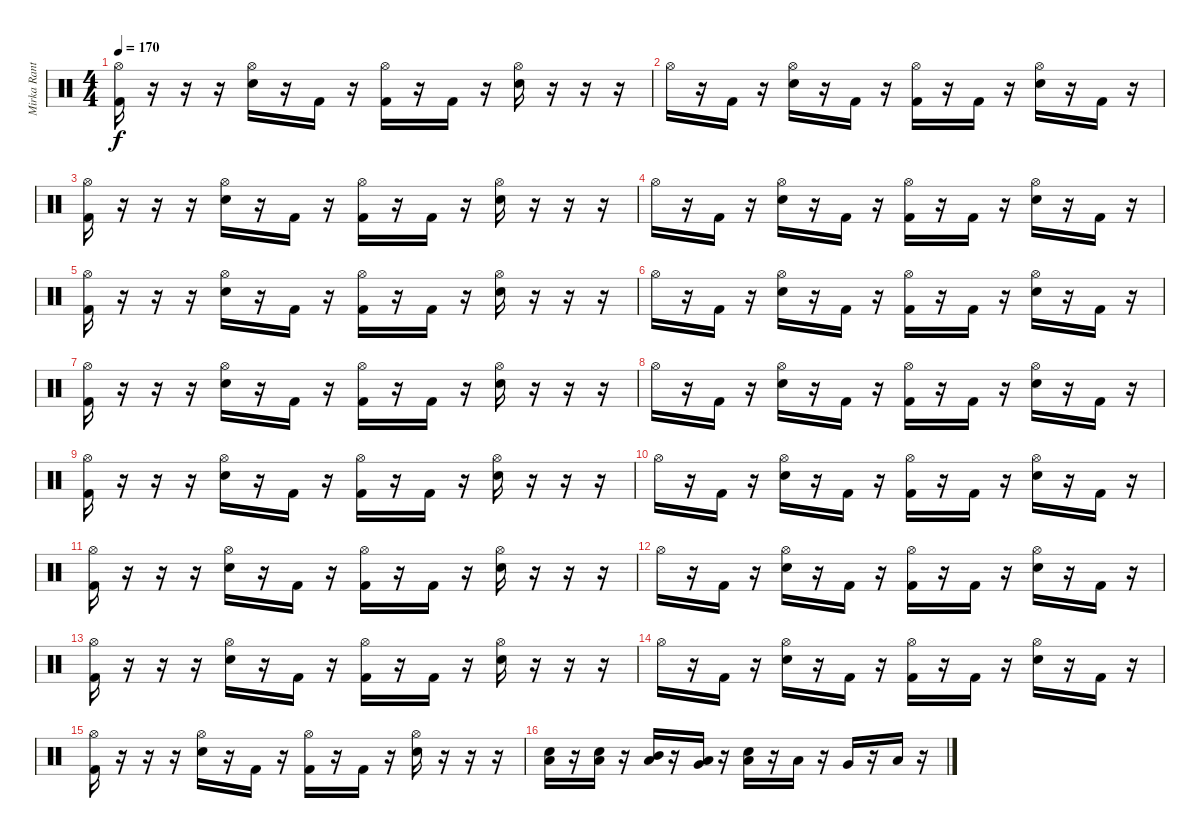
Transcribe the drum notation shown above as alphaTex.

\track ("Mirka Rantanen" "Mirka Rant") {instrument percussion}
\staff {score}
\articulation defaults
\ts (4 4)
\tempo 170
\clef neutral
\ks c
("Hi-Hat (open)" "Kick (hit) 2").16{dy f} r.16 r.16 r.16 ("Hi-Hat (open)" "Snare (hit) 2").16 r.16 "Kick (hit) 2".16 r.16 ("Hi-Hat (open)" "Kick (hit) 2").16 r.16 "Kick (hit) 2".16 r.16 ("Hi-Hat (open)" "Snare (hit) 2").16 r.16 r.16 r.16 |
"Hi-Hat (open)".16 r.16 "Kick (hit) 2".16 r.16 ("Hi-Hat (open)" "Snare (hit) 2").16 r.16 "Kick (hit) 2".16 r.16 ("Hi-Hat (open)" "Kick (hit) 2").16 r.16 "Kick (hit) 2".16 r.16 ("Hi-Hat (open)" "Snare (hit) 2").16 r.16 "Kick (hit) 2".16 r.16 |
("Hi-Hat (open)" "Kick (hit) 2").16 r.16 r.16 r.16 ("Hi-Hat (open)" "Snare (hit) 2").16 r.16 "Kick (hit) 2".16 r.16 ("Hi-Hat (open)" "Kick (hit) 2").16 r.16 "Kick (hit) 2".16 r.16 ("Hi-Hat (open)" "Snare (hit) 2").16 r.16 r.16 r.16 |
"Hi-Hat (open)".16 r.16 "Kick (hit) 2".16 r.16 ("Hi-Hat (open)" "Snare (hit) 2").16 r.16 "Kick (hit) 2".16 r.16 ("Hi-Hat (open)" "Kick (hit) 2").16 r.16 "Kick (hit) 2".16 r.16 ("Hi-Hat (open)" "Snare (hit) 2").16 r.16 "Kick (hit) 2".16 r.16 |
("Hi-Hat (open)" "Kick (hit) 2").16 r.16 r.16 r.16 ("Hi-Hat (open)" "Snare (hit) 2").16 r.16 "Kick (hit) 2".16 r.16 ("Hi-Hat (open)" "Kick (hit) 2").16 r.16 "Kick (hit) 2".16 r.16 ("Hi-Hat (open)" "Snare (hit) 2").16 r.16 r.16 r.16 |
"Hi-Hat (open)".16 r.16 "Kick (hit) 2".16 r.16 ("Hi-Hat (open)" "Snare (hit) 2").16 r.16 "Kick (hit) 2".16 r.16 ("Hi-Hat (open)" "Kick (hit) 2").16 r.16 "Kick (hit) 2".16 r.16 ("Hi-Hat (open)" "Snare (hit) 2").16 r.16 "Kick (hit) 2".16 r.16 |
("Hi-Hat (open)" "Kick (hit) 2").16 r.16 r.16 r.16 ("Hi-Hat (open)" "Snare (hit) 2").16 r.16 "Kick (hit) 2".16 r.16 ("Hi-Hat (open)" "Kick (hit) 2").16 r.16 "Kick (hit) 2".16 r.16 ("Hi-Hat (open)" "Snare (hit) 2").16 r.16 r.16 r.16 |
"Hi-Hat (open)".16 r.16 "Kick (hit) 2".16 r.16 ("Hi-Hat (open)" "Snare (hit) 2").16 r.16 "Kick (hit) 2".16 r.16 ("Hi-Hat (open)" "Kick (hit) 2").16 r.16 "Kick (hit) 2".16 r.16 ("Hi-Hat (open)" "Snare (hit) 2").16 r.16 "Kick (hit) 2".16 r.16 |
("Hi-Hat (open)" "Kick (hit) 2").16 r.16 r.16 r.16 ("Hi-Hat (open)" "Snare (hit) 2").16 r.16 "Kick (hit) 2".16 r.16 ("Hi-Hat (open)" "Kick (hit) 2").16 r.16 "Kick (hit) 2".16 r.16 ("Hi-Hat (open)" "Snare (hit) 2").16 r.16 r.16 r.16 |
"Hi-Hat (open)".16 r.16 "Kick (hit) 2".16 r.16 ("Hi-Hat (open)" "Snare (hit) 2").16 r.16 "Kick (hit) 2".16 r.16 ("Hi-Hat (open)" "Kick (hit) 2").16 r.16 "Kick (hit) 2".16 r.16 ("Hi-Hat (open)" "Snare (hit) 2").16 r.16 "Kick (hit) 2".16 r.16 |
("Hi-Hat (open)" "Kick (hit) 2").16 r.16 r.16 r.16 ("Hi-Hat (open)" "Snare (hit) 2").16 r.16 "Kick (hit) 2".16 r.16 ("Hi-Hat (open)" "Kick (hit) 2").16 r.16 "Kick (hit) 2".16 r.16 ("Hi-Hat (open)" "Snare (hit) 2").16 r.16 r.16 r.16 |
"Hi-Hat (open)".16 r.16 "Kick (hit) 2".16 r.16 ("Hi-Hat (open)" "Snare (hit) 2").16 r.16 "Kick (hit) 2".16 r.16 ("Hi-Hat (open)" "Kick (hit) 2").16 r.16 "Kick (hit) 2".16 r.16 ("Hi-Hat (open)" "Snare (hit) 2").16 r.16 "Kick (hit) 2".16 r.16 |
("Hi-Hat (open)" "Kick (hit) 2").16 r.16 r.16 r.16 ("Hi-Hat (open)" "Snare (hit) 2").16 r.16 "Kick (hit) 2".16 r.16 ("Hi-Hat (open)" "Kick (hit) 2").16 r.16 "Kick (hit) 2".16 r.16 ("Hi-Hat (open)" "Snare (hit) 2").16 r.16 r.16 r.16 |
"Hi-Hat (open)".16 r.16 "Kick (hit) 2".16 r.16 ("Hi-Hat (open)" "Snare (hit) 2").16 r.16 "Kick (hit) 2".16 r.16 ("Hi-Hat (open)" "Kick (hit) 2").16 r.16 "Kick (hit) 2".16 r.16 ("Hi-Hat (open)" "Snare (hit) 2").16 r.16 "Kick (hit) 2".16 r.16 |
("Hi-Hat (open)" "Kick (hit) 2").16 r.16 r.16 r.16 ("Hi-Hat (open)" "Snare (hit) 2").16 r.16 "Kick (hit) 2".16 r.16 ("Hi-Hat (open)" "Kick (hit) 2").16 r.16 "Kick (hit) 2".16 r.16 ("Hi-Hat (open)" "Snare (hit) 2").16 r.16 r.16 r.16 |
("Snare (hit) 2" "Low Tom (hit)").16 r.16 ("Snare (hit) 2" "Low Tom (hit)").16 r.16 ("Mid Tom (hit)" "Low Tom (hit)").16 r.16 ("Very Low Tom (hit)" "Low Tom (hit)").16 r.16 ("Snare (hit) 2" "Low Tom (hit)").16 r.16 "Low Tom (hit)".16 r.16 "Very Low Tom (hit)".16 r.16 "Low Floor Tom (hit)".16 r.16
